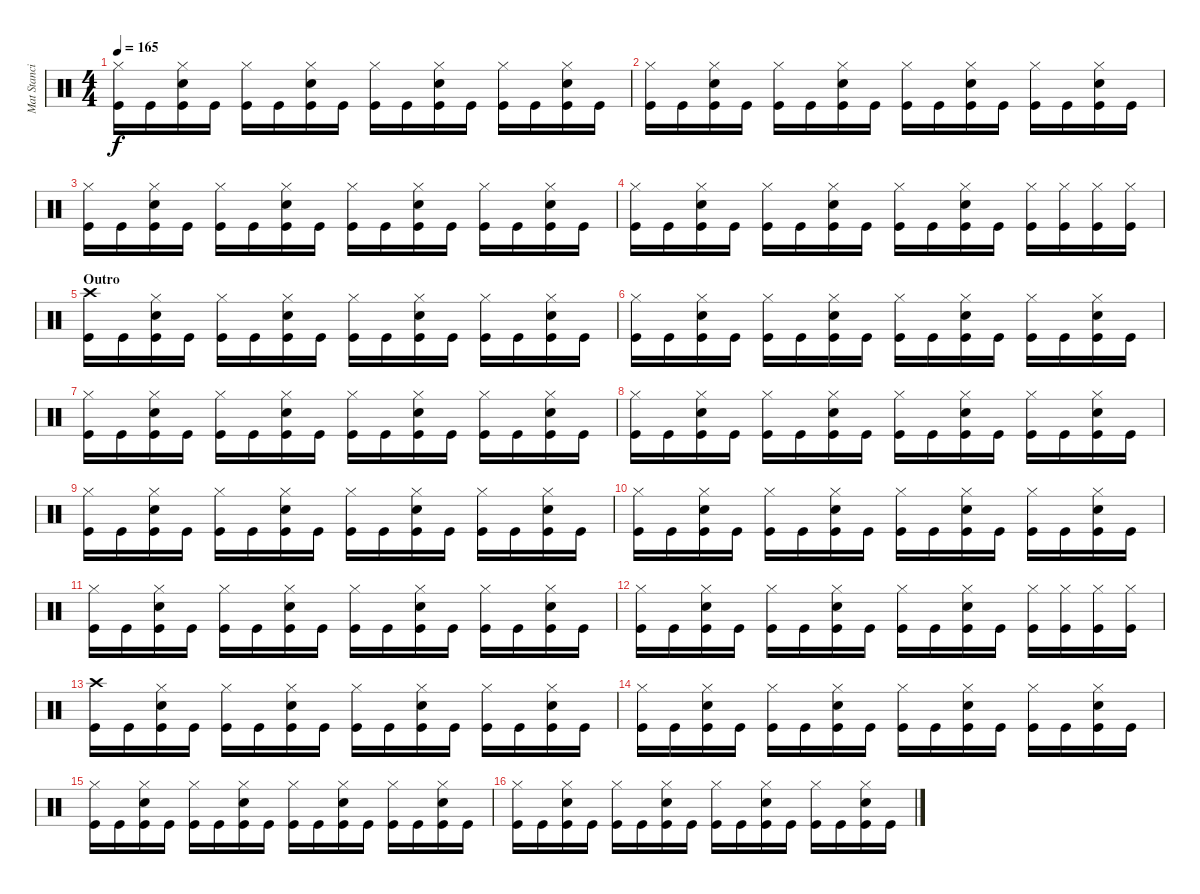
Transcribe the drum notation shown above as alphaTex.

\track ("Mat Stancioiu (Drums)" "Mat Stanci") {instrument percussion}
\staff {score}
\articulation defaults
\ts (4 4)
\tempo 165
\clef neutral
\ks c
("Hi-Hat (closed)" "Kick (hit)").16{dy f} "Kick (hit)".16 ("Hi-Hat (closed)" "Electric Snare (hit)" "Kick (hit)").16 "Kick (hit)".16 ("Hi-Hat (closed)" "Kick (hit)").16 "Kick (hit)".16 ("Hi-Hat (closed)" "Electric Snare (hit)" "Kick (hit)").16 "Kick (hit)".16 ("Hi-Hat (closed)" "Kick (hit)").16 "Kick (hit)".16 ("Hi-Hat (closed)" "Electric Snare (hit)" "Kick (hit)").16 "Kick (hit)".16 ("Hi-Hat (closed)" "Kick (hit)").16 "Kick (hit)".16 ("Hi-Hat (closed)" "Electric Snare (hit)" "Kick (hit)").16 "Kick (hit)".16 |
("Hi-Hat (closed)" "Kick (hit)").16 "Kick (hit)".16 ("Hi-Hat (closed)" "Electric Snare (hit)" "Kick (hit)").16 "Kick (hit)".16 ("Hi-Hat (closed)" "Kick (hit)").16 "Kick (hit)".16 ("Hi-Hat (closed)" "Electric Snare (hit)" "Kick (hit)").16 "Kick (hit)".16 ("Hi-Hat (closed)" "Kick (hit)").16 "Kick (hit)".16 ("Hi-Hat (closed)" "Electric Snare (hit)" "Kick (hit)").16 "Kick (hit)".16 ("Hi-Hat (closed)" "Kick (hit)").16 "Kick (hit)".16 ("Hi-Hat (closed)" "Electric Snare (hit)" "Kick (hit)").16 "Kick (hit)".16 |
("Hi-Hat (closed)" "Kick (hit)").16 "Kick (hit)".16 ("Hi-Hat (closed)" "Electric Snare (hit)" "Kick (hit)").16 "Kick (hit)".16 ("Hi-Hat (closed)" "Kick (hit)").16 "Kick (hit)".16 ("Hi-Hat (closed)" "Electric Snare (hit)" "Kick (hit)").16 "Kick (hit)".16 ("Hi-Hat (closed)" "Kick (hit)").16 "Kick (hit)".16 ("Hi-Hat (closed)" "Electric Snare (hit)" "Kick (hit)").16 "Kick (hit)".16 ("Hi-Hat (closed)" "Kick (hit)").16 "Kick (hit)".16 ("Hi-Hat (closed)" "Electric Snare (hit)" "Kick (hit)").16 "Kick (hit)".16 |
("Hi-Hat (closed)" "Kick (hit)").16 "Kick (hit)".16 ("Hi-Hat (closed)" "Electric Snare (hit)" "Kick (hit)").16 "Kick (hit)".16 ("Hi-Hat (closed)" "Kick (hit)").16 "Kick (hit)".16 ("Hi-Hat (closed)" "Electric Snare (hit)" "Kick (hit)").16 "Kick (hit)".16 ("Hi-Hat (closed)" "Kick (hit)").16 "Kick (hit)".16 ("Hi-Hat (closed)" "Electric Snare (hit)" "Kick (hit)").16 "Kick (hit)".16 ("Hi-Hat (closed)" "Kick (hit)").16 ("Hi-Hat (closed)" "Kick (hit)").16 ("Hi-Hat (closed)" "Kick (hit)").16 ("Hi-Hat (closed)" "Kick (hit)").16 |
\section ("" "Outro")
("Crash high (hit)" "Kick (hit)").16 "Kick (hit)".16 ("Hi-Hat (closed)" "Electric Snare (hit)" "Kick (hit)").16 "Kick (hit)".16 ("Hi-Hat (closed)" "Kick (hit)").16 "Kick (hit)".16 ("Hi-Hat (closed)" "Electric Snare (hit)" "Kick (hit)").16 "Kick (hit)".16 ("Hi-Hat (closed)" "Kick (hit)").16 "Kick (hit)".16 ("Hi-Hat (closed)" "Electric Snare (hit)" "Kick (hit)").16 "Kick (hit)".16 ("Hi-Hat (closed)" "Kick (hit)").16 "Kick (hit)".16 ("Hi-Hat (closed)" "Electric Snare (hit)" "Kick (hit)").16 "Kick (hit)".16 |
("Hi-Hat (closed)" "Kick (hit)").16 "Kick (hit)".16 ("Hi-Hat (closed)" "Electric Snare (hit)" "Kick (hit)").16 "Kick (hit)".16 ("Hi-Hat (closed)" "Kick (hit)").16 "Kick (hit)".16 ("Hi-Hat (closed)" "Electric Snare (hit)" "Kick (hit)").16 "Kick (hit)".16 ("Hi-Hat (closed)" "Kick (hit)").16 "Kick (hit)".16 ("Hi-Hat (closed)" "Electric Snare (hit)" "Kick (hit)").16 "Kick (hit)".16 ("Hi-Hat (closed)" "Kick (hit)").16 "Kick (hit)".16 ("Hi-Hat (closed)" "Electric Snare (hit)" "Kick (hit)").16 "Kick (hit)".16 |
("Hi-Hat (closed)" "Kick (hit)").16 "Kick (hit)".16 ("Hi-Hat (closed)" "Electric Snare (hit)" "Kick (hit)").16 "Kick (hit)".16 ("Hi-Hat (closed)" "Kick (hit)").16 "Kick (hit)".16 ("Hi-Hat (closed)" "Electric Snare (hit)" "Kick (hit)").16 "Kick (hit)".16 ("Hi-Hat (closed)" "Kick (hit)").16 "Kick (hit)".16 ("Hi-Hat (closed)" "Electric Snare (hit)" "Kick (hit)").16 "Kick (hit)".16 ("Hi-Hat (closed)" "Kick (hit)").16 "Kick (hit)".16 ("Hi-Hat (closed)" "Electric Snare (hit)" "Kick (hit)").16 "Kick (hit)".16 |
("Hi-Hat (closed)" "Kick (hit)").16 "Kick (hit)".16 ("Hi-Hat (closed)" "Electric Snare (hit)" "Kick (hit)").16 "Kick (hit)".16 ("Hi-Hat (closed)" "Kick (hit)").16 "Kick (hit)".16 ("Hi-Hat (closed)" "Electric Snare (hit)" "Kick (hit)").16 "Kick (hit)".16 ("Hi-Hat (closed)" "Kick (hit)").16 "Kick (hit)".16 ("Hi-Hat (closed)" "Electric Snare (hit)" "Kick (hit)").16 "Kick (hit)".16 ("Hi-Hat (closed)" "Kick (hit)").16 "Kick (hit)".16 ("Hi-Hat (closed)" "Electric Snare (hit)" "Kick (hit)").16 "Kick (hit)".16 |
("Hi-Hat (closed)" "Kick (hit)").16 "Kick (hit)".16 ("Hi-Hat (closed)" "Electric Snare (hit)" "Kick (hit)").16 "Kick (hit)".16 ("Hi-Hat (closed)" "Kick (hit)").16 "Kick (hit)".16 ("Hi-Hat (closed)" "Electric Snare (hit)" "Kick (hit)").16 "Kick (hit)".16 ("Hi-Hat (closed)" "Kick (hit)").16 "Kick (hit)".16 ("Hi-Hat (closed)" "Electric Snare (hit)" "Kick (hit)").16 "Kick (hit)".16 ("Hi-Hat (closed)" "Kick (hit)").16 "Kick (hit)".16 ("Hi-Hat (closed)" "Electric Snare (hit)" "Kick (hit)").16 "Kick (hit)".16 |
("Hi-Hat (closed)" "Kick (hit)").16 "Kick (hit)".16 ("Hi-Hat (closed)" "Electric Snare (hit)" "Kick (hit)").16 "Kick (hit)".16 ("Hi-Hat (closed)" "Kick (hit)").16 "Kick (hit)".16 ("Hi-Hat (closed)" "Electric Snare (hit)" "Kick (hit)").16 "Kick (hit)".16 ("Hi-Hat (closed)" "Kick (hit)").16 "Kick (hit)".16 ("Hi-Hat (closed)" "Electric Snare (hit)" "Kick (hit)").16 "Kick (hit)".16 ("Hi-Hat (closed)" "Kick (hit)").16 "Kick (hit)".16 ("Hi-Hat (closed)" "Electric Snare (hit)" "Kick (hit)").16 "Kick (hit)".16 |
("Hi-Hat (closed)" "Kick (hit)").16 "Kick (hit)".16 ("Hi-Hat (closed)" "Electric Snare (hit)" "Kick (hit)").16 "Kick (hit)".16 ("Hi-Hat (closed)" "Kick (hit)").16 "Kick (hit)".16 ("Hi-Hat (closed)" "Electric Snare (hit)" "Kick (hit)").16 "Kick (hit)".16 ("Hi-Hat (closed)" "Kick (hit)").16 "Kick (hit)".16 ("Hi-Hat (closed)" "Electric Snare (hit)" "Kick (hit)").16 "Kick (hit)".16 ("Hi-Hat (closed)" "Kick (hit)").16 "Kick (hit)".16 ("Hi-Hat (closed)" "Electric Snare (hit)" "Kick (hit)").16 "Kick (hit)".16 |
("Hi-Hat (closed)" "Kick (hit)").16 "Kick (hit)".16 ("Hi-Hat (closed)" "Electric Snare (hit)" "Kick (hit)").16 "Kick (hit)".16 ("Hi-Hat (closed)" "Kick (hit)").16 "Kick (hit)".16 ("Hi-Hat (closed)" "Electric Snare (hit)" "Kick (hit)").16 "Kick (hit)".16 ("Hi-Hat (closed)" "Kick (hit)").16 "Kick (hit)".16 ("Hi-Hat (closed)" "Electric Snare (hit)" "Kick (hit)").16 "Kick (hit)".16 ("Hi-Hat (closed)" "Kick (hit)").16 ("Hi-Hat (closed)" "Kick (hit)").16 ("Hi-Hat (closed)" "Kick (hit)").16 ("Hi-Hat (closed)" "Kick (hit)").16 |
("Crash high (hit)" "Kick (hit)").16 "Kick (hit)".16 ("Hi-Hat (closed)" "Electric Snare (hit)" "Kick (hit)").16 "Kick (hit)".16 ("Hi-Hat (closed)" "Kick (hit)").16 "Kick (hit)".16 ("Hi-Hat (closed)" "Electric Snare (hit)" "Kick (hit)").16 "Kick (hit)".16 ("Hi-Hat (closed)" "Kick (hit)").16 "Kick (hit)".16 ("Hi-Hat (closed)" "Electric Snare (hit)" "Kick (hit)").16 "Kick (hit)".16 ("Hi-Hat (closed)" "Kick (hit)").16 "Kick (hit)".16 ("Hi-Hat (closed)" "Electric Snare (hit)" "Kick (hit)").16 "Kick (hit)".16 |
("Hi-Hat (closed)" "Kick (hit)").16 "Kick (hit)".16 ("Hi-Hat (closed)" "Electric Snare (hit)" "Kick (hit)").16 "Kick (hit)".16 ("Hi-Hat (closed)" "Kick (hit)").16 "Kick (hit)".16 ("Hi-Hat (closed)" "Electric Snare (hit)" "Kick (hit)").16 "Kick (hit)".16 ("Hi-Hat (closed)" "Kick (hit)").16 "Kick (hit)".16 ("Hi-Hat (closed)" "Electric Snare (hit)" "Kick (hit)").16 "Kick (hit)".16 ("Hi-Hat (closed)" "Kick (hit)").16 "Kick (hit)".16 ("Hi-Hat (closed)" "Electric Snare (hit)" "Kick (hit)").16 "Kick (hit)".16 |
("Hi-Hat (closed)" "Kick (hit)").16 "Kick (hit)".16 ("Hi-Hat (closed)" "Electric Snare (hit)" "Kick (hit)").16 "Kick (hit)".16 ("Hi-Hat (closed)" "Kick (hit)").16 "Kick (hit)".16 ("Hi-Hat (closed)" "Electric Snare (hit)" "Kick (hit)").16 "Kick (hit)".16 ("Hi-Hat (closed)" "Kick (hit)").16 "Kick (hit)".16 ("Hi-Hat (closed)" "Electric Snare (hit)" "Kick (hit)").16 "Kick (hit)".16 ("Hi-Hat (closed)" "Kick (hit)").16 "Kick (hit)".16 ("Hi-Hat (closed)" "Electric Snare (hit)" "Kick (hit)").16 "Kick (hit)".16 |
("Hi-Hat (closed)" "Kick (hit)").16{volume 9} "Kick (hit)".16 ("Hi-Hat (closed)" "Electric Snare (hit)" "Kick (hit)").16 "Kick (hit)".16 ("Hi-Hat (closed)" "Kick (hit)").16 "Kick (hit)".16 ("Hi-Hat (closed)" "Electric Snare (hit)" "Kick (hit)").16 "Kick (hit)".16 ("Hi-Hat (closed)" "Kick (hit)").16 "Kick (hit)".16 ("Hi-Hat (closed)" "Electric Snare (hit)" "Kick (hit)").16 "Kick (hit)".16 ("Hi-Hat (closed)" "Kick (hit)").16 "Kick (hit)".16 ("Hi-Hat (closed)" "Electric Snare (hit)" "Kick (hit)").16 "Kick (hit)".16
